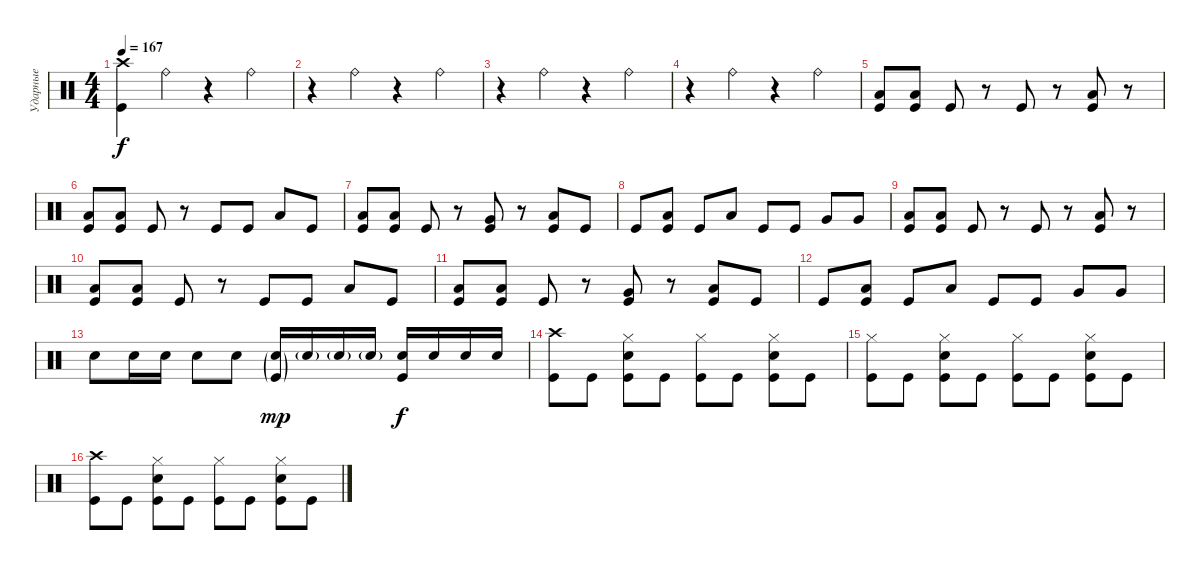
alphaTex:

\track ("Ударные" "Ударные") {instrument percussion}
\staff {score}
\articulation defaults
\ts (4 4)
\tempo 167
\clef neutral
\ks c
("Crash high (hit)" "Kick (hit)").4{dy f} "Ride (bell)".4 r.4 "Ride (bell)".4 |
r.4 "Ride (bell)".4 r.4 "Ride (bell)".4 |
r.4 "Ride (bell)".4 r.4 "Ride (bell)".4 |
r.4 "Ride (bell)".4 r.4 "Ride (bell)".4 |
("Low Tom (hit)" "Kick (hit)").8 ("Low Tom (hit)" "Kick (hit)").8 "Kick (hit)".8 r.8 "Kick (hit)".8 r.8 ("Low Tom (hit)" "Kick (hit)").8 r.8 |
("Low Tom (hit)" "Kick (hit)").8 ("Low Tom (hit)" "Kick (hit)").8 "Kick (hit)".8 r.8 "Kick (hit)".8 "Kick (hit)".8 "Low Tom (hit)".8 "Kick (hit)".8 |
("Low Tom (hit)" "Kick (hit)").8 ("Low Tom (hit)" "Kick (hit)").8 "Kick (hit)".8 r.8 ("Very Low Tom (hit)" "Kick (hit)").8 r.8 ("Low Tom (hit)" "Kick (hit)").8 "Kick (hit)".8 |
"Kick (hit)".8 ("Low Tom (hit)" "Kick (hit)").8 "Kick (hit)".8 "Low Tom (hit)".8 "Kick (hit)".8 "Kick (hit)".8 "Very Low Tom (hit)".8 "Very Low Tom (hit)".8 |
("Low Tom (hit)" "Kick (hit)").8 ("Low Tom (hit)" "Kick (hit)").8 "Kick (hit)".8 r.8 "Kick (hit)".8 r.8 ("Low Tom (hit)" "Kick (hit)").8 r.8 |
("Low Tom (hit)" "Kick (hit)").8 ("Low Tom (hit)" "Kick (hit)").8 "Kick (hit)".8 r.8 "Kick (hit)".8 "Kick (hit)".8 "Low Tom (hit)".8 "Kick (hit)".8 |
("Low Tom (hit)" "Kick (hit)").8 ("Low Tom (hit)" "Kick (hit)").8 "Kick (hit)".8 r.8 ("Very Low Tom (hit)" "Kick (hit)").8 r.8 ("Low Tom (hit)" "Kick (hit)").8 "Kick (hit)".8 |
"Kick (hit)".8 ("Low Tom (hit)" "Kick (hit)").8 "Kick (hit)".8 "Low Tom (hit)".8 "Kick (hit)".8 "Kick (hit)".8 "Very Low Tom (hit)".8 "Very Low Tom (hit)".8 |
"Electric Snare (hit)".8 "Electric Snare (hit)".16 "Electric Snare (hit)".16 "Electric Snare (hit)".8 "Electric Snare (hit)".8 ("Electric Snare (hit)"{g} "Kick (hit)"{g}).16{dy mp} "Electric Snare (hit)"{g}.16 "Electric Snare (hit)"{g}.16 "Electric Snare (hit)"{g}.16 ("Electric Snare (hit)" "Kick (hit)").16{dy f} "Electric Snare (hit)".16 "Electric Snare (hit)".16 "Electric Snare (hit)".16 |
("Crash high (hit)" "Kick (hit)").8 "Kick (hit)".8 ("Hi-Hat (closed)" "Electric Snare (hit)" "Kick (hit)").8 "Kick (hit)".8 ("Hi-Hat (closed)" "Kick (hit)").8 "Kick (hit)".8 ("Hi-Hat (closed)" "Electric Snare (hit)" "Kick (hit)").8 "Kick (hit)".8 |
("Hi-Hat (closed)" "Kick (hit)").8 "Kick (hit)".8 ("Hi-Hat (closed)" "Electric Snare (hit)" "Kick (hit)").8 "Kick (hit)".8 ("Hi-Hat (closed)" "Kick (hit)").8 "Kick (hit)".8 ("Hi-Hat (closed)" "Electric Snare (hit)" "Kick (hit)").8 "Kick (hit)".8 |
("Crash high (hit)" "Kick (hit)").8 "Kick (hit)".8 ("Hi-Hat (closed)" "Electric Snare (hit)" "Kick (hit)").8 "Kick (hit)".8 ("Hi-Hat (closed)" "Kick (hit)").8 "Kick (hit)".8 ("Hi-Hat (closed)" "Electric Snare (hit)" "Kick (hit)").8 "Kick (hit)".8
